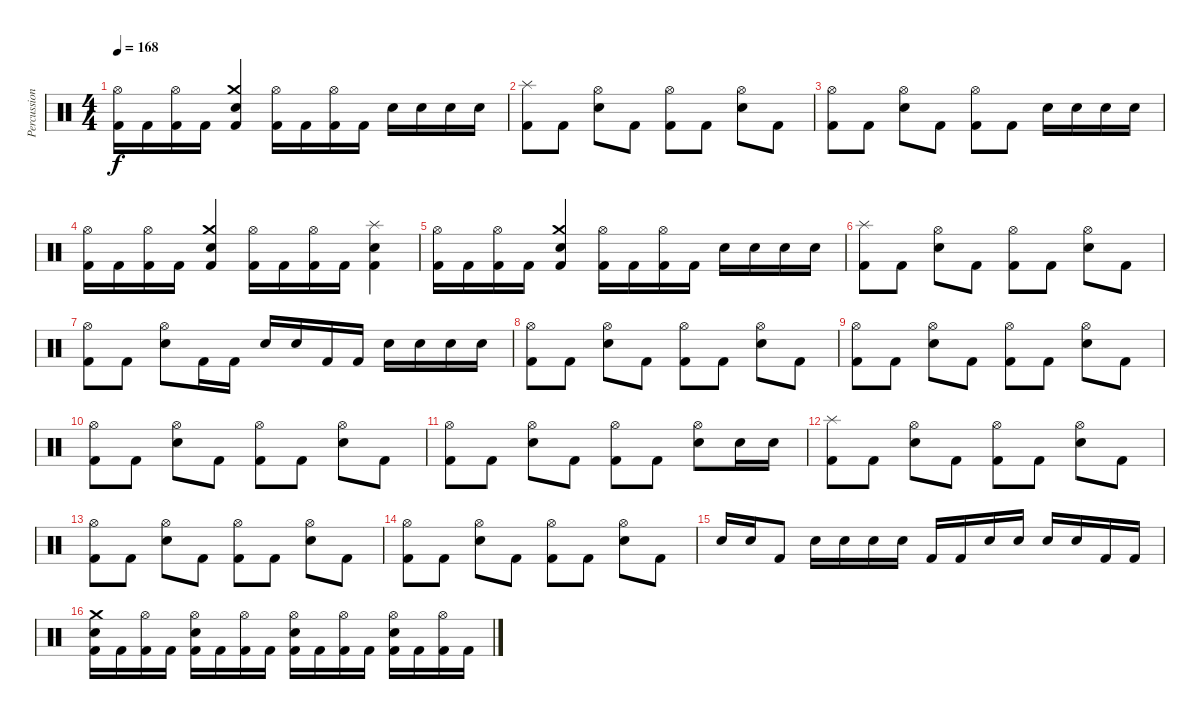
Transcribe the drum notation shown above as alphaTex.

\track ("Percussion" "Percussion") {instrument percussion}
\staff {score}
\articulation defaults
\ts (4 4)
\tempo 168
\clef neutral
\ks c
("Hi-Hat (open)" "Kick (hit) 2").16{dy f} "Kick (hit) 2".16 ("Hi-Hat (open)" "Kick (hit) 2").16 "Kick (hit) 2".16 ("Crash medium (hit)" "Snare (hit) 2" "Kick (hit) 2").4 ("Hi-Hat (open)" "Kick (hit) 2").16 "Kick (hit) 2".16 ("Hi-Hat (open)" "Kick (hit) 2").16 "Kick (hit) 2".16 "Snare (hit) 2".16 "Snare (hit) 2".16 "Snare (hit) 2".16 "Snare (hit) 2".16 |
("Splash (hit)" "Kick (hit) 2").8 "Kick (hit) 2".8 ("Hi-Hat (open)" "Snare (hit) 2").8 "Kick (hit) 2".8 ("Hi-Hat (open)" "Kick (hit) 2").8 "Kick (hit) 2".8 ("Hi-Hat (open)" "Snare (hit) 2").8 "Kick (hit) 2".8 |
("Hi-Hat (open)" "Kick (hit) 2").8 "Kick (hit) 2".8 ("Hi-Hat (open)" "Snare (hit) 2").8 "Kick (hit) 2".8 ("Hi-Hat (open)" "Kick (hit) 2").8 "Kick (hit) 2".8 "Snare (hit) 2".16 "Snare (hit) 2".16 "Snare (hit) 2".16 "Snare (hit) 2".16 |
("Hi-Hat (open)" "Kick (hit) 2").16 "Kick (hit) 2".16 ("Hi-Hat (open)" "Kick (hit) 2").16 "Kick (hit) 2".16 ("Crash medium (hit)" "Snare (hit) 2" "Kick (hit) 2").4 ("Hi-Hat (open)" "Kick (hit) 2").16 "Kick (hit) 2".16 ("Hi-Hat (open)" "Kick (hit) 2").16 "Kick (hit) 2".16 ("Splash (hit)" "Snare (hit) 2" "Kick (hit) 2").4 |
("Hi-Hat (open)" "Kick (hit) 2").16 "Kick (hit) 2".16 ("Hi-Hat (open)" "Kick (hit) 2").16 "Kick (hit) 2".16 ("Crash medium (hit)" "Snare (hit) 2" "Kick (hit) 2").4 ("Hi-Hat (open)" "Kick (hit) 2").16 "Kick (hit) 2".16 ("Hi-Hat (open)" "Kick (hit) 2").16 "Kick (hit) 2".16 "Snare (hit) 2".16 "Snare (hit) 2".16 "Snare (hit) 2".16 "Snare (hit) 2".16 |
("Splash (hit)" "Kick (hit) 2").8 "Kick (hit) 2".8 ("Hi-Hat (open)" "Snare (hit) 2").8 "Kick (hit) 2".8 ("Hi-Hat (open)" "Kick (hit) 2").8 "Kick (hit) 2".8 ("Hi-Hat (open)" "Snare (hit) 2").8 "Kick (hit) 2".8 |
("Hi-Hat (open)" "Kick (hit) 2").8 "Kick (hit) 2".8 ("Hi-Hat (open)" "Snare (hit) 2").8 "Kick (hit) 2".16 "Kick (hit) 2".16 "Snare (hit) 2".16 "Snare (hit) 2".16 "Kick (hit) 2".16 "Kick (hit) 2".16 "Snare (hit) 2".16 "Snare (hit) 2".16 "Snare (hit) 2".16 "Snare (hit) 2".16 |
("Hi-Hat (open)" "Kick (hit) 2").8 "Kick (hit) 2".8 ("Hi-Hat (open)" "Snare (hit) 2").8 "Kick (hit) 2".8 ("Hi-Hat (open)" "Kick (hit) 2").8 "Kick (hit) 2".8 ("Hi-Hat (open)" "Snare (hit) 2").8 "Kick (hit) 2".8 |
("Hi-Hat (open)" "Kick (hit) 2").8 "Kick (hit) 2".8 ("Hi-Hat (open)" "Snare (hit) 2").8 "Kick (hit) 2".8 ("Hi-Hat (open)" "Kick (hit) 2").8 "Kick (hit) 2".8 ("Hi-Hat (open)" "Snare (hit) 2").8 "Kick (hit) 2".8 |
("Hi-Hat (open)" "Kick (hit) 2").8 "Kick (hit) 2".8 ("Hi-Hat (open)" "Snare (hit) 2").8 "Kick (hit) 2".8 ("Hi-Hat (open)" "Kick (hit) 2").8 "Kick (hit) 2".8 ("Hi-Hat (open)" "Snare (hit) 2").8 "Kick (hit) 2".8 |
("Hi-Hat (open)" "Kick (hit) 2").8 "Kick (hit) 2".8 ("Hi-Hat (open)" "Snare (hit) 2").8 "Kick (hit) 2".8 ("Hi-Hat (open)" "Kick (hit) 2").8 "Kick (hit) 2".8 ("Hi-Hat (open)" "Snare (hit) 2").8 "Snare (hit) 2".16 "Snare (hit) 2".16 |
("Splash (hit)" "Kick (hit) 2").8 "Kick (hit) 2".8 ("Hi-Hat (open)" "Snare (hit) 2").8 "Kick (hit) 2".8 ("Hi-Hat (open)" "Kick (hit) 2").8 "Kick (hit) 2".8 ("Hi-Hat (open)" "Snare (hit) 2").8 "Kick (hit) 2".8 |
("Hi-Hat (open)" "Kick (hit) 2").8 "Kick (hit) 2".8 ("Hi-Hat (open)" "Snare (hit) 2").8 "Kick (hit) 2".8 ("Hi-Hat (open)" "Kick (hit) 2").8 "Kick (hit) 2".8 ("Hi-Hat (open)" "Snare (hit) 2").8 "Kick (hit) 2".8 |
("Hi-Hat (open)" "Kick (hit) 2").8 "Kick (hit) 2".8 ("Hi-Hat (open)" "Snare (hit) 2").8 "Kick (hit) 2".8 ("Hi-Hat (open)" "Kick (hit) 2").8 "Kick (hit) 2".8 ("Hi-Hat (open)" "Snare (hit) 2").8 "Kick (hit) 2".8 |
"Snare (hit) 2".16 "Snare (hit) 2".16 "Kick (hit) 2".8 "Snare (hit) 2".16 "Snare (hit) 2".16 "Snare (hit) 2".16 "Snare (hit) 2".16 "Kick (hit) 2".16 "Kick (hit) 2".16 "Snare (hit) 2".16 "Snare (hit) 2".16 "Snare (hit) 2".16 "Snare (hit) 2".16 "Kick (hit) 2".16 "Kick (hit) 2".16 |
("Crash medium (hit)" "Snare (hit) 2" "Kick (hit) 2").16 "Kick (hit) 2".16 ("Hi-Hat (open)" "Kick (hit) 2").16 "Kick (hit) 2".16 ("Hi-Hat (open)" "Snare (hit) 2" "Kick (hit) 2").16 "Kick (hit) 2".16 ("Hi-Hat (open)" "Kick (hit) 2").16 "Kick (hit) 2".16 ("Hi-Hat (open)" "Snare (hit) 2" "Kick (hit) 2").16 "Kick (hit) 2".16 ("Hi-Hat (open)" "Kick (hit) 2").16 "Kick (hit) 2".16 ("Hi-Hat (open)" "Snare (hit) 2" "Kick (hit) 2").16 "Kick (hit) 2".16 ("Hi-Hat (open)" "Kick (hit) 2").16 "Kick (hit) 2".16
